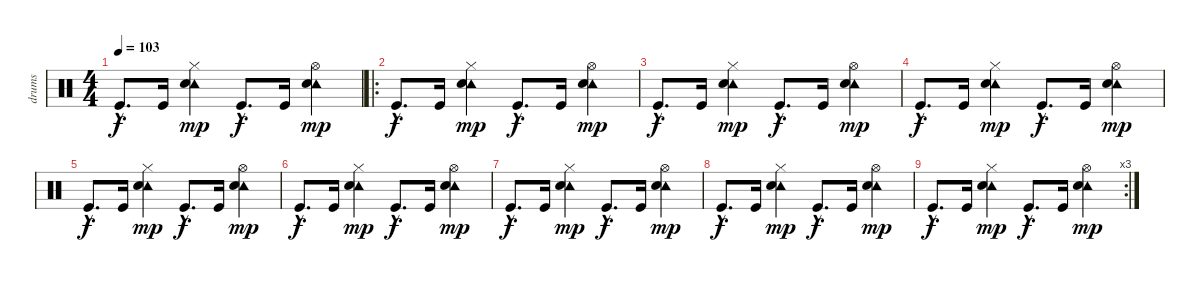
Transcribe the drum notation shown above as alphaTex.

\track ("drums" "drums") {instrument percussion}
\staff {score}
\articulation defaults
\ts (4 4)
\tempo 103
\clef neutral
\ks c "Kick (hit)"{hac}.8{d dy f} "Kick (hit)".16
("Tambourine (hit)" "Hi-Hat (closed)" "Electric Snare (hit)").4{dy mp} "Kick (hit)"{hac}.8{d dy f} "Kick (hit)".16 ("Tambourine (hit)" "Hi-Hat (open)" "Electric Snare (hit)").4{dy mp} |
\ro "Kick (hit)"{hac}.8{d dy f} "Kick (hit)".16
("Tambourine (hit)" "Hi-Hat (closed)" "Electric Snare (hit)").4{dy mp} "Kick (hit)"{hac}.8{d dy f} "Kick (hit)".16 ("Tambourine (hit)" "Hi-Hat (open)" "Electric Snare (hit)").4{dy mp} |
"Kick (hit)"{hac}.8{d dy f} "Kick (hit)".16 ("Tambourine (hit)" "Hi-Hat (closed)" "Electric Snare (hit)").4{dy mp} "Kick (hit)"{hac}.8{d dy f} "Kick (hit)".16 ("Tambourine (hit)" "Hi-Hat (open)" "Electric Snare (hit)").4{dy mp} |
"Kick (hit)"{hac}.8{d dy f} "Kick (hit)".16 ("Tambourine (hit)" "Hi-Hat (closed)" "Electric Snare (hit)").4{dy mp} "Kick (hit)"{hac}.8{d dy f} "Kick (hit)".16 ("Tambourine (hit)" "Hi-Hat (open)" "Electric Snare (hit)").4{dy mp} |
"Kick (hit)"{hac}.8{d dy f} "Kick (hit)".16 ("Tambourine (hit)" "Hi-Hat (closed)" "Electric Snare (hit)").4{dy mp} "Kick (hit)"{hac}.8{d dy f} "Kick (hit)".16 ("Tambourine (hit)" "Hi-Hat (open)" "Electric Snare (hit)").4{dy mp} |
"Kick (hit)"{hac}.8{d dy f} "Kick (hit)".16 ("Tambourine (hit)" "Hi-Hat (closed)" "Electric Snare (hit)").4{dy mp} "Kick (hit)"{hac}.8{d dy f} "Kick (hit)".16 ("Tambourine (hit)" "Hi-Hat (open)" "Electric Snare (hit)").4{dy mp} |
"Kick (hit)"{hac}.8{d dy f} "Kick (hit)".16 ("Tambourine (hit)" "Hi-Hat (closed)" "Electric Snare (hit)").4{dy mp} "Kick (hit)"{hac}.8{d dy f} "Kick (hit)".16 ("Tambourine (hit)" "Hi-Hat (open)" "Electric Snare (hit)").4{dy mp} |
"Kick (hit)"{hac}.8{d dy f} "Kick (hit)".16 ("Tambourine (hit)" "Hi-Hat (closed)" "Electric Snare (hit)").4{dy mp} "Kick (hit)"{hac}.8{d dy f} "Kick (hit)".16 ("Tambourine (hit)" "Hi-Hat (open)" "Electric Snare (hit)").4{dy mp} |
\rc 3 "Kick (hit)"{hac}.8{d dy f} "Kick (hit)".16
("Tambourine (hit)" "Hi-Hat (closed)" "Electric Snare (hit)").4{dy mp} "Kick (hit)"{hac}.8{d dy f} "Kick (hit)".16 ("Tambourine (hit)" "Hi-Hat (open)" "Electric Snare (hit)").4{dy mp}
